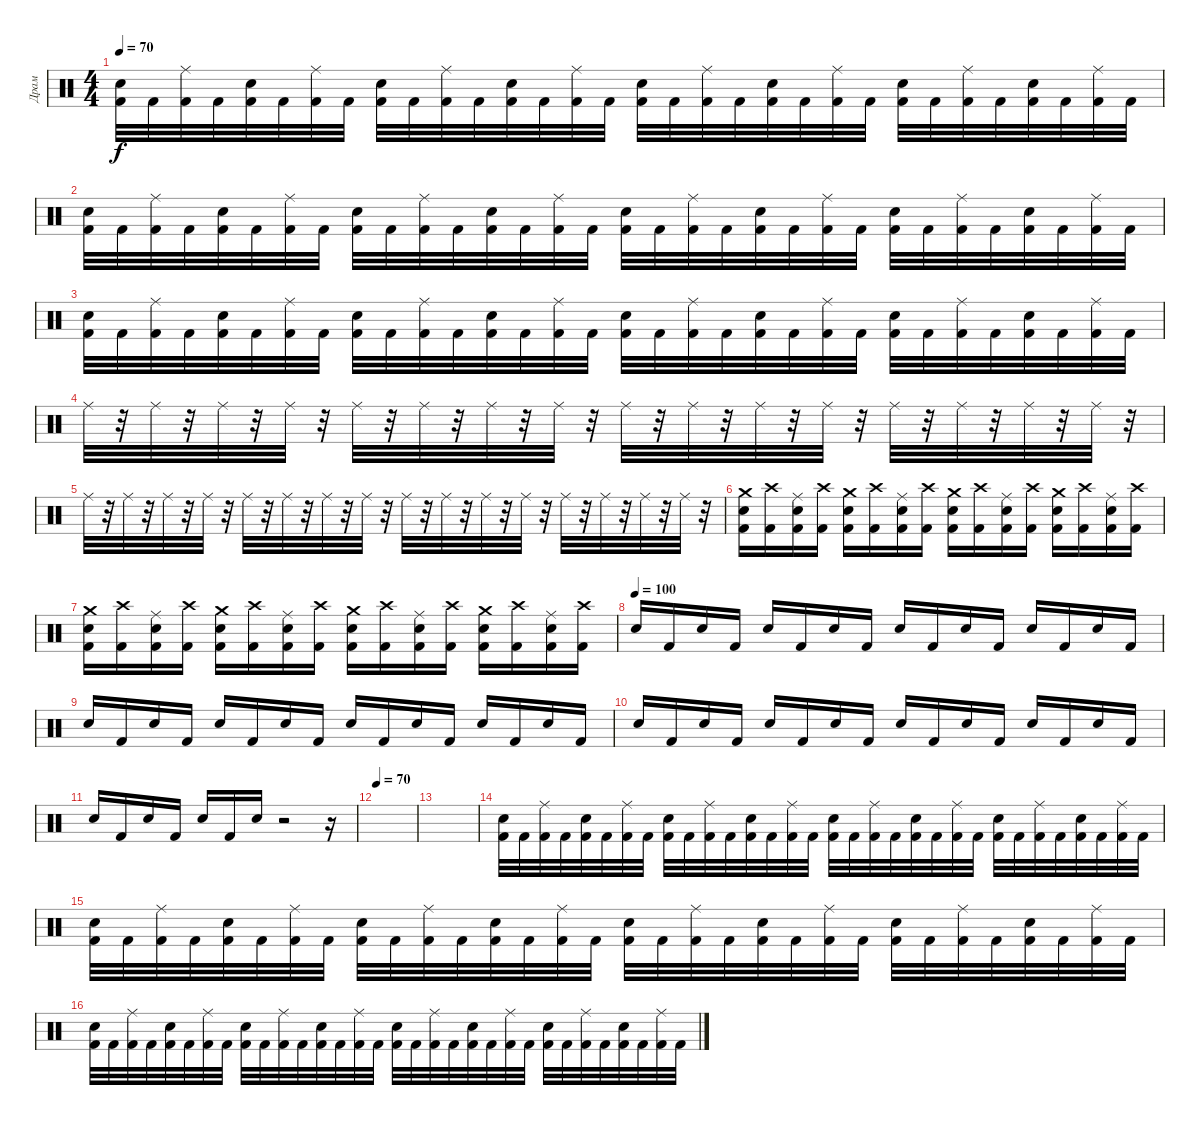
\track ("Драм" "Драм") {instrument percussion}
\staff {score}
\articulation defaults
\ts (4 4)
\tempo 70
\clef neutral
\ks c
("Electric Snare (hit)" "Kick (hit) 2").32{dy f} "Kick (hit) 2".32 ("Ride (middle)" "Kick (hit) 2").32 "Kick (hit) 2".32 ("Electric Snare (hit)" "Kick (hit) 2").32 "Kick (hit) 2".32 ("Ride (middle)" "Kick (hit) 2").32 "Kick (hit) 2".32 ("Electric Snare (hit)" "Kick (hit) 2").32 "Kick (hit) 2".32 ("Ride (middle)" "Kick (hit) 2").32 "Kick (hit) 2".32 ("Electric Snare (hit)" "Kick (hit) 2").32 "Kick (hit) 2".32 ("Ride (middle)" "Kick (hit) 2").32 "Kick (hit) 2".32 ("Electric Snare (hit)" "Kick (hit) 2").32 "Kick (hit) 2".32 ("Ride (middle)" "Kick (hit) 2").32 "Kick (hit) 2".32 ("Electric Snare (hit)" "Kick (hit) 2").32 "Kick (hit) 2".32 ("Ride (middle)" "Kick (hit) 2").32 "Kick (hit) 2".32 ("Electric Snare (hit)" "Kick (hit) 2").32 "Kick (hit) 2".32 ("Ride (middle)" "Kick (hit) 2").32 "Kick (hit) 2".32 ("Electric Snare (hit)" "Kick (hit) 2").32 "Kick (hit) 2".32 ("Ride (middle)" "Kick (hit) 2").32 "Kick (hit) 2".32 |
("Electric Snare (hit)" "Kick (hit) 2").32 "Kick (hit) 2".32 ("Ride (middle)" "Kick (hit) 2").32 "Kick (hit) 2".32 ("Electric Snare (hit)" "Kick (hit) 2").32 "Kick (hit) 2".32 ("Ride (middle)" "Kick (hit) 2").32 "Kick (hit) 2".32 ("Electric Snare (hit)" "Kick (hit) 2").32 "Kick (hit) 2".32 ("Ride (middle)" "Kick (hit) 2").32 "Kick (hit) 2".32 ("Electric Snare (hit)" "Kick (hit) 2").32 "Kick (hit) 2".32 ("Ride (middle)" "Kick (hit) 2").32 "Kick (hit) 2".32 ("Electric Snare (hit)" "Kick (hit) 2").32 "Kick (hit) 2".32 ("Ride (middle)" "Kick (hit) 2").32 "Kick (hit) 2".32 ("Electric Snare (hit)" "Kick (hit) 2").32 "Kick (hit) 2".32 ("Ride (middle)" "Kick (hit) 2").32 "Kick (hit) 2".32 ("Electric Snare (hit)" "Kick (hit) 2").32 "Kick (hit) 2".32 ("Ride (middle)" "Kick (hit) 2").32 "Kick (hit) 2".32 ("Electric Snare (hit)" "Kick (hit) 2").32 "Kick (hit) 2".32 ("Ride (middle)" "Kick (hit) 2").32 "Kick (hit) 2".32 |
("Electric Snare (hit)" "Kick (hit) 2").32 "Kick (hit) 2".32 ("Ride (middle)" "Kick (hit) 2").32 "Kick (hit) 2".32 ("Electric Snare (hit)" "Kick (hit) 2").32 "Kick (hit) 2".32 ("Ride (middle)" "Kick (hit) 2").32 "Kick (hit) 2".32 ("Electric Snare (hit)" "Kick (hit) 2").32 "Kick (hit) 2".32 ("Ride (middle)" "Kick (hit) 2").32 "Kick (hit) 2".32 ("Electric Snare (hit)" "Kick (hit) 2").32 "Kick (hit) 2".32 ("Ride (middle)" "Kick (hit) 2").32 "Kick (hit) 2".32 ("Electric Snare (hit)" "Kick (hit) 2").32 "Kick (hit) 2".32 ("Ride (middle)" "Kick (hit) 2").32 "Kick (hit) 2".32 ("Electric Snare (hit)" "Kick (hit) 2").32 "Kick (hit) 2".32 ("Ride (middle)" "Kick (hit) 2").32 "Kick (hit) 2".32 ("Electric Snare (hit)" "Kick (hit) 2").32 "Kick (hit) 2".32 ("Ride (middle)" "Kick (hit) 2").32 "Kick (hit) 2".32 ("Electric Snare (hit)" "Kick (hit) 2").32 "Kick (hit) 2".32 ("Ride (middle)" "Kick (hit) 2").32 "Kick (hit) 2".32 |
"Ride (middle)".32 r.32 "Ride (middle)".32 r.32 "Ride (middle)".32 r.32 "Ride (middle)".32 r.32 "Ride (middle)".32 r.32 "Ride (middle)".32 r.32 "Ride (middle)".32 r.32 "Ride (middle)".32 r.32 "Ride (middle)".32 r.32 "Ride (middle)".32 r.32 "Ride (middle)".32 r.32 "Ride (middle)".32 r.32 "Ride (middle)".32 r.32 "Ride (middle)".32 r.32 "Ride (middle)".32 r.32 "Ride (middle)".32 r.32 |
"Ride (middle)".32 r.32 "Ride (middle)".32 r.32 "Ride (middle)".32 r.32 "Ride (middle)".32 r.32 "Ride (middle)".32 r.32 "Ride (middle)".32 r.32 "Ride (middle)".32 r.32 "Ride (middle)".32 r.32 "Ride (middle)".32 r.32 "Ride (middle)".32 r.32 "Ride (middle)".32 r.32 "Ride (middle)".32 r.32 "Ride (middle)".32 r.32 "Ride (middle)".32 r.32 "Ride (middle)".32 r.32 "Ride (middle)".32 r.32 |
("Crash medium (hit)" "Electric Snare (hit)" "Kick (hit) 2").16 ("Crash high (hit)" "Kick (hit) 2").16 ("Ride (middle)" "Electric Snare (hit)" "Kick (hit) 2").16 ("Crash high (hit)" "Kick (hit) 2").16 ("Crash medium (hit)" "Electric Snare (hit)" "Kick (hit) 2").16 ("Crash high (hit)" "Kick (hit) 2").16 ("Ride (middle)" "Electric Snare (hit)" "Kick (hit) 2").16 ("Crash high (hit)" "Kick (hit) 2").16 ("Crash medium (hit)" "Electric Snare (hit)" "Kick (hit) 2").16 ("Crash high (hit)" "Kick (hit) 2").16 ("Ride (middle)" "Electric Snare (hit)" "Kick (hit) 2").16 ("Crash high (hit)" "Kick (hit) 2").16 ("Crash medium (hit)" "Electric Snare (hit)" "Kick (hit) 2").16 ("Crash high (hit)" "Kick (hit) 2").16 ("Ride (middle)" "Electric Snare (hit)" "Kick (hit) 2").16 ("Crash high (hit)" "Kick (hit) 2").16 |
("Crash medium (hit)" "Electric Snare (hit)" "Kick (hit) 2").16 ("Crash high (hit)" "Kick (hit) 2").16 ("Ride (middle)" "Electric Snare (hit)" "Kick (hit) 2").16 ("Crash high (hit)" "Kick (hit) 2").16 ("Crash medium (hit)" "Electric Snare (hit)" "Kick (hit) 2").16 ("Crash high (hit)" "Kick (hit) 2").16 ("Ride (middle)" "Electric Snare (hit)" "Kick (hit) 2").16 ("Crash high (hit)" "Kick (hit) 2").16 ("Crash medium (hit)" "Electric Snare (hit)" "Kick (hit) 2").16 ("Crash high (hit)" "Kick (hit) 2").16 ("Ride (middle)" "Electric Snare (hit)" "Kick (hit) 2").16 ("Crash high (hit)" "Kick (hit) 2").16 ("Crash medium (hit)" "Electric Snare (hit)" "Kick (hit) 2").16 ("Crash high (hit)" "Kick (hit) 2").16 ("Ride (middle)" "Electric Snare (hit)" "Kick (hit) 2").16 ("Crash high (hit)" "Kick (hit) 2").16 |
\tempo (100)
"Snare (hit) 2".16 "Kick (hit) 2".16 "Snare (hit) 2".16 "Kick (hit) 2".16 "Snare (hit) 2".16 "Kick (hit) 2".16 "Snare (hit) 2".16 "Kick (hit) 2".16 "Snare (hit) 2".16 "Kick (hit) 2".16 "Snare (hit) 2".16 "Kick (hit) 2".16 "Snare (hit) 2".16 "Kick (hit) 2".16 "Snare (hit) 2".16 "Kick (hit) 2".16 |
"Snare (hit) 2".16 "Kick (hit) 2".16 "Snare (hit) 2".16 "Kick (hit) 2".16 "Snare (hit) 2".16 "Kick (hit) 2".16 "Snare (hit) 2".16 "Kick (hit) 2".16 "Snare (hit) 2".16 "Kick (hit) 2".16 "Snare (hit) 2".16 "Kick (hit) 2".16 "Snare (hit) 2".16 "Kick (hit) 2".16 "Snare (hit) 2".16 "Kick (hit) 2".16 |
"Snare (hit) 2".16 "Kick (hit) 2".16 "Snare (hit) 2".16 "Kick (hit) 2".16 "Snare (hit) 2".16 "Kick (hit) 2".16 "Snare (hit) 2".16 "Kick (hit) 2".16 "Snare (hit) 2".16 "Kick (hit) 2".16 "Snare (hit) 2".16 "Kick (hit) 2".16 "Snare (hit) 2".16 "Kick (hit) 2".16 "Snare (hit) 2".16 "Kick (hit) 2".16 |
"Snare (hit) 2".16 "Kick (hit) 2".16 "Snare (hit) 2".16 "Kick (hit) 2".16 "Snare (hit) 2".16 "Kick (hit) 2".16 "Snare (hit) 2".16 r.2 r.16 |
\tempo 70
|
|
("Electric Snare (hit)" "Kick (hit) 2").32 "Kick (hit) 2".32 ("Ride (middle)" "Kick (hit) 2").32 "Kick (hit) 2".32 ("Electric Snare (hit)" "Kick (hit) 2").32 "Kick (hit) 2".32 ("Ride (middle)" "Kick (hit) 2").32 "Kick (hit) 2".32 ("Electric Snare (hit)" "Kick (hit) 2").32 "Kick (hit) 2".32 ("Ride (middle)" "Kick (hit) 2").32 "Kick (hit) 2".32 ("Electric Snare (hit)" "Kick (hit) 2").32 "Kick (hit) 2".32 ("Ride (middle)" "Kick (hit) 2").32 "Kick (hit) 2".32 ("Electric Snare (hit)" "Kick (hit) 2").32 "Kick (hit) 2".32 ("Ride (middle)" "Kick (hit) 2").32 "Kick (hit) 2".32 ("Electric Snare (hit)" "Kick (hit) 2").32 "Kick (hit) 2".32 ("Ride (middle)" "Kick (hit) 2").32 "Kick (hit) 2".32 ("Electric Snare (hit)" "Kick (hit) 2").32 "Kick (hit) 2".32 ("Ride (middle)" "Kick (hit) 2").32 "Kick (hit) 2".32 ("Electric Snare (hit)" "Kick (hit) 2").32 "Kick (hit) 2".32 ("Ride (middle)" "Kick (hit) 2").32 "Kick (hit) 2".32 |
("Electric Snare (hit)" "Kick (hit) 2").32 "Kick (hit) 2".32 ("Ride (middle)" "Kick (hit) 2").32 "Kick (hit) 2".32 ("Electric Snare (hit)" "Kick (hit) 2").32 "Kick (hit) 2".32 ("Ride (middle)" "Kick (hit) 2").32 "Kick (hit) 2".32 ("Electric Snare (hit)" "Kick (hit) 2").32 "Kick (hit) 2".32 ("Ride (middle)" "Kick (hit) 2").32 "Kick (hit) 2".32 ("Electric Snare (hit)" "Kick (hit) 2").32 "Kick (hit) 2".32 ("Ride (middle)" "Kick (hit) 2").32 "Kick (hit) 2".32 ("Electric Snare (hit)" "Kick (hit) 2").32 "Kick (hit) 2".32 ("Ride (middle)" "Kick (hit) 2").32 "Kick (hit) 2".32 ("Electric Snare (hit)" "Kick (hit) 2").32 "Kick (hit) 2".32 ("Ride (middle)" "Kick (hit) 2").32 "Kick (hit) 2".32 ("Electric Snare (hit)" "Kick (hit) 2").32 "Kick (hit) 2".32 ("Ride (middle)" "Kick (hit) 2").32 "Kick (hit) 2".32 ("Electric Snare (hit)" "Kick (hit) 2").32 "Kick (hit) 2".32 ("Ride (middle)" "Kick (hit) 2").32 "Kick (hit) 2".32 |
("Electric Snare (hit)" "Kick (hit) 2").32 "Kick (hit) 2".32 ("Ride (middle)" "Kick (hit) 2").32 "Kick (hit) 2".32 ("Electric Snare (hit)" "Kick (hit) 2").32 "Kick (hit) 2".32 ("Ride (middle)" "Kick (hit) 2").32 "Kick (hit) 2".32 ("Electric Snare (hit)" "Kick (hit) 2").32 "Kick (hit) 2".32 ("Ride (middle)" "Kick (hit) 2").32 "Kick (hit) 2".32 ("Electric Snare (hit)" "Kick (hit) 2").32 "Kick (hit) 2".32 ("Ride (middle)" "Kick (hit) 2").32 "Kick (hit) 2".32 ("Electric Snare (hit)" "Kick (hit) 2").32 "Kick (hit) 2".32 ("Ride (middle)" "Kick (hit) 2").32 "Kick (hit) 2".32 ("Electric Snare (hit)" "Kick (hit) 2").32 "Kick (hit) 2".32 ("Ride (middle)" "Kick (hit) 2").32 "Kick (hit) 2".32 ("Electric Snare (hit)" "Kick (hit) 2").32 "Kick (hit) 2".32 ("Ride (middle)" "Kick (hit) 2").32 "Kick (hit) 2".32 ("Electric Snare (hit)" "Kick (hit) 2").32 "Kick (hit) 2".32 ("Ride (middle)" "Kick (hit) 2").32 "Kick (hit) 2".32
